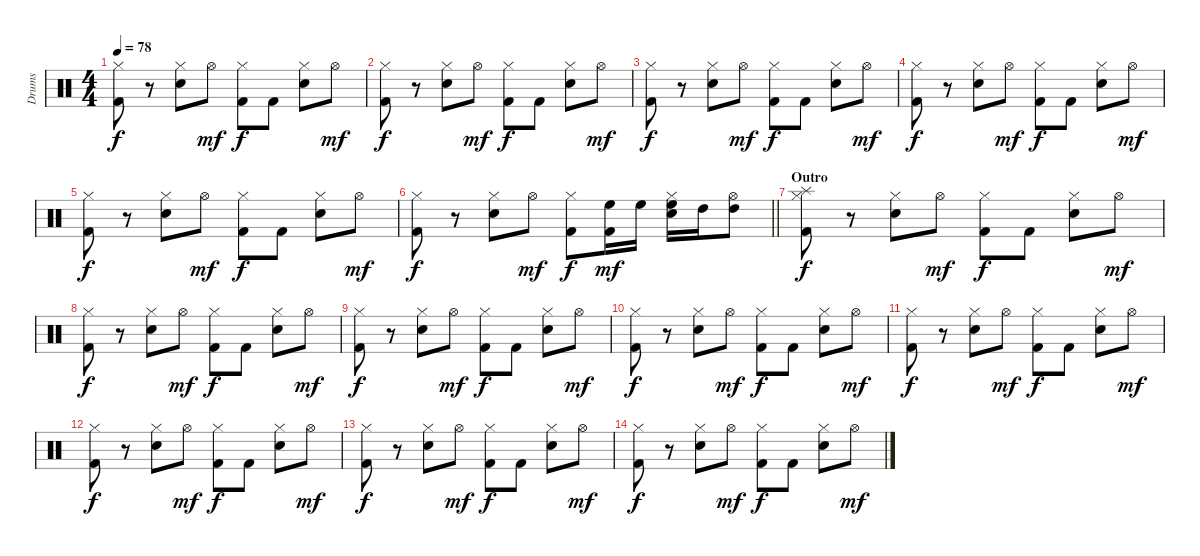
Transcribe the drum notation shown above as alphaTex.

\track ("Drums" "Drums") {instrument percussion}
\staff {score}
\articulation defaults
\ts (4 4)
\tempo 78
\clef neutral
\ks c
("Hi-Hat (closed)" "Kick (hit) 2").8{dy f} r.8 ("Electric Snare (hit)" "Hi-Hat (closed)").8 "Hi-Hat (open)".8{dy mf} ("Hi-Hat (closed)" "Kick (hit) 2").8{dy f} "Kick (hit) 2".8 ("Electric Snare (hit)" "Hi-Hat (closed)").8 "Hi-Hat (open)".8{dy mf} |
("Hi-Hat (closed)" "Kick (hit) 2").8{dy f} r.8 ("Electric Snare (hit)" "Hi-Hat (closed)").8 "Hi-Hat (open)".8{dy mf} ("Hi-Hat (closed)" "Kick (hit) 2").8{dy f} "Kick (hit) 2".8 ("Electric Snare (hit)" "Hi-Hat (closed)").8 "Hi-Hat (open)".8{dy mf} |
("Hi-Hat (closed)" "Kick (hit) 2").8{dy f} r.8 ("Electric Snare (hit)" "Hi-Hat (closed)").8 "Hi-Hat (open)".8{dy mf} ("Hi-Hat (closed)" "Kick (hit) 2").8{dy f} "Kick (hit) 2".8 ("Electric Snare (hit)" "Hi-Hat (closed)").8 "Hi-Hat (open)".8{dy mf} |
("Hi-Hat (closed)" "Kick (hit) 2").8{dy f} r.8 ("Electric Snare (hit)" "Hi-Hat (closed)").8 "Hi-Hat (open)".8{dy mf} ("Hi-Hat (closed)" "Kick (hit) 2").8{dy f} "Kick (hit) 2".8 ("Electric Snare (hit)" "Hi-Hat (closed)").8 "Hi-Hat (open)".8{dy mf} |
("Hi-Hat (closed)" "Kick (hit) 2").8{dy f} r.8 ("Electric Snare (hit)" "Hi-Hat (closed)").8 "Hi-Hat (open)".8{dy mf} ("Hi-Hat (closed)" "Kick (hit) 2").8{dy f} "Kick (hit) 2".8 ("Electric Snare (hit)" "Hi-Hat (closed)").8 "Hi-Hat (open)".8{dy mf} |
\barLineRight lightlight
("Hi-Hat (closed)" "Kick (hit) 2").8{dy f} r.8 ("Electric Snare (hit)" "Hi-Hat (closed)").8 "Hi-Hat (open)".8{dy mf} ("Hi-Hat (closed)" "Kick (hit) 2").8{dy f} ("High Floor Tom (hit)" "Kick (hit) 2").16{dy mf} "High Floor Tom (hit)".16 ("High Floor Tom (hit)" "Electric Snare (hit)" "Hi-Hat (closed)").16 "High Tom (hit)".16 ("High Tom (hit)" "Hi-Hat (open)").8 |
\section ("" "Outro")
("Splash (hit)" "Hi-Hat (closed)" "Kick (hit) 2").8{dy f} r.8 ("Electric Snare (hit)" "Hi-Hat (closed)").8 "Hi-Hat (open)".8{dy mf} ("Hi-Hat (closed)" "Kick (hit) 2").8{dy f} "Kick (hit) 2".8 ("Electric Snare (hit)" "Hi-Hat (closed)").8 "Hi-Hat (open)".8{dy mf} |
("Hi-Hat (closed)" "Kick (hit) 2").8{dy f} r.8 ("Electric Snare (hit)" "Hi-Hat (closed)").8 "Hi-Hat (open)".8{dy mf} ("Hi-Hat (closed)" "Kick (hit) 2").8{dy f} "Kick (hit) 2".8 ("Electric Snare (hit)" "Hi-Hat (closed)").8 "Hi-Hat (open)".8{dy mf} |
("Hi-Hat (closed)" "Kick (hit) 2").8{dy f} r.8 ("Electric Snare (hit)" "Hi-Hat (closed)").8 "Hi-Hat (open)".8{dy mf} ("Hi-Hat (closed)" "Kick (hit) 2").8{dy f} "Kick (hit) 2".8 ("Electric Snare (hit)" "Hi-Hat (closed)").8 "Hi-Hat (open)".8{dy mf} |
("Hi-Hat (closed)" "Kick (hit) 2").8{dy f} r.8 ("Electric Snare (hit)" "Hi-Hat (closed)").8 "Hi-Hat (open)".8{dy mf} ("Hi-Hat (closed)" "Kick (hit) 2").8{dy f} "Kick (hit) 2".8 ("Electric Snare (hit)" "Hi-Hat (closed)").8 "Hi-Hat (open)".8{dy mf} |
("Hi-Hat (closed)" "Kick (hit) 2").8{dy f} r.8 ("Electric Snare (hit)" "Hi-Hat (closed)").8 "Hi-Hat (open)".8{dy mf} ("Hi-Hat (closed)" "Kick (hit) 2").8{dy f} "Kick (hit) 2".8 ("Electric Snare (hit)" "Hi-Hat (closed)").8 "Hi-Hat (open)".8{dy mf} |
("Hi-Hat (closed)" "Kick (hit) 2").8{dy f} r.8 ("Electric Snare (hit)" "Hi-Hat (closed)").8 "Hi-Hat (open)".8{dy mf} ("Hi-Hat (closed)" "Kick (hit) 2").8{dy f} "Kick (hit) 2".8 ("Electric Snare (hit)" "Hi-Hat (closed)").8 "Hi-Hat (open)".8{dy mf} |
("Hi-Hat (closed)" "Kick (hit) 2").8{dy f} r.8 ("Electric Snare (hit)" "Hi-Hat (closed)").8 "Hi-Hat (open)".8{dy mf} ("Hi-Hat (closed)" "Kick (hit) 2").8{dy f} "Kick (hit) 2".8 ("Electric Snare (hit)" "Hi-Hat (closed)").8 "Hi-Hat (open)".8{dy mf} |
("Hi-Hat (closed)" "Kick (hit) 2").8{dy f} r.8 ("Electric Snare (hit)" "Hi-Hat (closed)").8 "Hi-Hat (open)".8{dy mf} ("Hi-Hat (closed)" "Kick (hit) 2").8{dy f} "Kick (hit) 2".8 ("Electric Snare (hit)" "Hi-Hat (closed)").8 "Hi-Hat (open)".8{dy mf}
